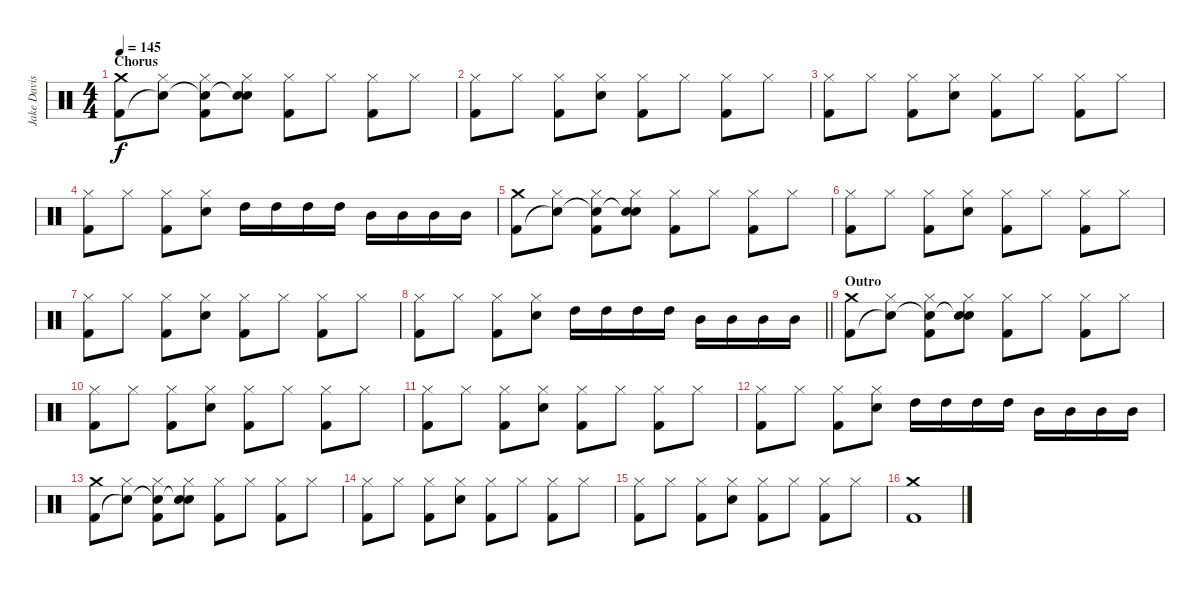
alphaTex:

\track ("Jake Davison (Drums)" "Jake Davis") {instrument percussion}
\staff {score}
\articulation defaults
\ts (4 4)
\section ("" "Chorus")
\tempo 145
\clef neutral
\ks c
("Crash medium (hit)" "Kick (hit) 2").8{dy f} ("Hi-Hat (closed)" "Snare (hit)"{t}).8 ("Hi-Hat (closed)" "Snare (hit)"{t} "Kick (hit) 2").8 ("Hi-Hat (closed)" "Snare (hit)"{t} "Electric Snare (hit)").8 ("Hi-Hat (closed)" "Kick (hit) 2").8 "Hi-Hat (closed)".8 ("Hi-Hat (closed)" "Kick (hit) 2").8 "Hi-Hat (closed)".8 |
("Hi-Hat (closed)" "Kick (hit) 2").8 "Hi-Hat (closed)".8 ("Hi-Hat (closed)" "Kick (hit) 2").8 ("Hi-Hat (closed)" "Electric Snare (hit)").8 ("Hi-Hat (closed)" "Kick (hit) 2").8 "Hi-Hat (closed)".8 ("Hi-Hat (closed)" "Kick (hit) 2").8 "Hi-Hat (closed)".8 |
("Hi-Hat (closed)" "Kick (hit) 2").8 "Hi-Hat (closed)".8 ("Hi-Hat (closed)" "Kick (hit) 2").8 ("Hi-Hat (closed)" "Electric Snare (hit)").8 ("Hi-Hat (closed)" "Kick (hit) 2").8 "Hi-Hat (closed)".8 ("Hi-Hat (closed)" "Kick (hit) 2").8 "Hi-Hat (closed)".8 |
("Hi-Hat (closed)" "Kick (hit) 2").8 "Hi-Hat (closed)".8 ("Hi-Hat (closed)" "Kick (hit) 2").8 ("Hi-Hat (closed)" "Electric Snare (hit)").8 "High Tom (hit)".16 "High Tom (hit)".16 "High Tom (hit)".16 "High Tom (hit)".16 "Mid Tom (hit)".16 "Mid Tom (hit)".16 "Mid Tom (hit)".16 "Mid Tom (hit)".16 |
("Crash medium (hit)" "Kick (hit) 2").8 ("Hi-Hat (closed)" "Snare (hit)"{t}).8 ("Hi-Hat (closed)" "Snare (hit)"{t} "Kick (hit) 2").8 ("Hi-Hat (closed)" "Snare (hit)"{t} "Electric Snare (hit)").8 ("Hi-Hat (closed)" "Kick (hit) 2").8 "Hi-Hat (closed)".8 ("Hi-Hat (closed)" "Kick (hit) 2").8 "Hi-Hat (closed)".8 |
("Hi-Hat (closed)" "Kick (hit) 2").8 "Hi-Hat (closed)".8 ("Hi-Hat (closed)" "Kick (hit) 2").8 ("Hi-Hat (closed)" "Electric Snare (hit)").8 ("Hi-Hat (closed)" "Kick (hit) 2").8 "Hi-Hat (closed)".8 ("Hi-Hat (closed)" "Kick (hit) 2").8 "Hi-Hat (closed)".8 |
("Hi-Hat (closed)" "Kick (hit) 2").8 "Hi-Hat (closed)".8 ("Hi-Hat (closed)" "Kick (hit) 2").8 ("Hi-Hat (closed)" "Electric Snare (hit)").8 ("Hi-Hat (closed)" "Kick (hit) 2").8 "Hi-Hat (closed)".8 ("Hi-Hat (closed)" "Kick (hit) 2").8 "Hi-Hat (closed)".8 |
\barLineRight lightlight
("Hi-Hat (closed)" "Kick (hit) 2").8 "Hi-Hat (closed)".8 ("Hi-Hat (closed)" "Kick (hit) 2").8 ("Hi-Hat (closed)" "Electric Snare (hit)").8 "High Tom (hit)".16 "High Tom (hit)".16 "High Tom (hit)".16 "High Tom (hit)".16 "Mid Tom (hit)".16 "Mid Tom (hit)".16 "Mid Tom (hit)".16 "Mid Tom (hit)".16 |
\section ("" "Outro")
("Crash medium (hit)" "Kick (hit) 2").8 ("Hi-Hat (closed)" "Snare (hit)"{t}).8 ("Hi-Hat (closed)" "Snare (hit)"{t} "Kick (hit) 2").8 ("Hi-Hat (closed)" "Snare (hit)"{t} "Electric Snare (hit)").8 ("Hi-Hat (closed)" "Kick (hit) 2").8 "Hi-Hat (closed)".8 ("Hi-Hat (closed)" "Kick (hit) 2").8 "Hi-Hat (closed)".8 |
("Hi-Hat (closed)" "Kick (hit) 2").8 "Hi-Hat (closed)".8 ("Hi-Hat (closed)" "Kick (hit) 2").8 ("Hi-Hat (closed)" "Electric Snare (hit)").8 ("Hi-Hat (closed)" "Kick (hit) 2").8 "Hi-Hat (closed)".8 ("Hi-Hat (closed)" "Kick (hit) 2").8 "Hi-Hat (closed)".8 |
("Hi-Hat (closed)" "Kick (hit) 2").8 "Hi-Hat (closed)".8 ("Hi-Hat (closed)" "Kick (hit) 2").8 ("Hi-Hat (closed)" "Electric Snare (hit)").8 ("Hi-Hat (closed)" "Kick (hit) 2").8 "Hi-Hat (closed)".8 ("Hi-Hat (closed)" "Kick (hit) 2").8 "Hi-Hat (closed)".8 |
("Hi-Hat (closed)" "Kick (hit) 2").8 "Hi-Hat (closed)".8 ("Hi-Hat (closed)" "Kick (hit) 2").8 ("Hi-Hat (closed)" "Electric Snare (hit)").8 "High Tom (hit)".16 "High Tom (hit)".16 "High Tom (hit)".16 "High Tom (hit)".16 "Mid Tom (hit)".16 "Mid Tom (hit)".16 "Mid Tom (hit)".16 "Mid Tom (hit)".16 |
("Crash medium (hit)" "Kick (hit) 2").8 ("Hi-Hat (closed)" "Snare (hit)"{t}).8 ("Hi-Hat (closed)" "Snare (hit)"{t} "Kick (hit) 2").8 ("Hi-Hat (closed)" "Snare (hit)"{t} "Electric Snare (hit)").8 ("Hi-Hat (closed)" "Kick (hit) 2").8 "Hi-Hat (closed)".8 ("Hi-Hat (closed)" "Kick (hit) 2").8 "Hi-Hat (closed)".8 |
("Hi-Hat (closed)" "Kick (hit) 2").8 "Hi-Hat (closed)".8 ("Hi-Hat (closed)" "Kick (hit) 2").8 ("Hi-Hat (closed)" "Electric Snare (hit)").8 ("Hi-Hat (closed)" "Kick (hit) 2").8 "Hi-Hat (closed)".8 ("Hi-Hat (closed)" "Kick (hit) 2").8 "Hi-Hat (closed)".8 |
("Hi-Hat (closed)" "Kick (hit) 2").8 "Hi-Hat (closed)".8 ("Hi-Hat (closed)" "Kick (hit) 2").8 ("Hi-Hat (closed)" "Electric Snare (hit)").8 ("Hi-Hat (closed)" "Kick (hit) 2").8 "Hi-Hat (closed)".8 ("Hi-Hat (closed)" "Kick (hit) 2").8 "Hi-Hat (closed)".8 |
("Crash medium (hit)" "Kick (hit) 2").1
